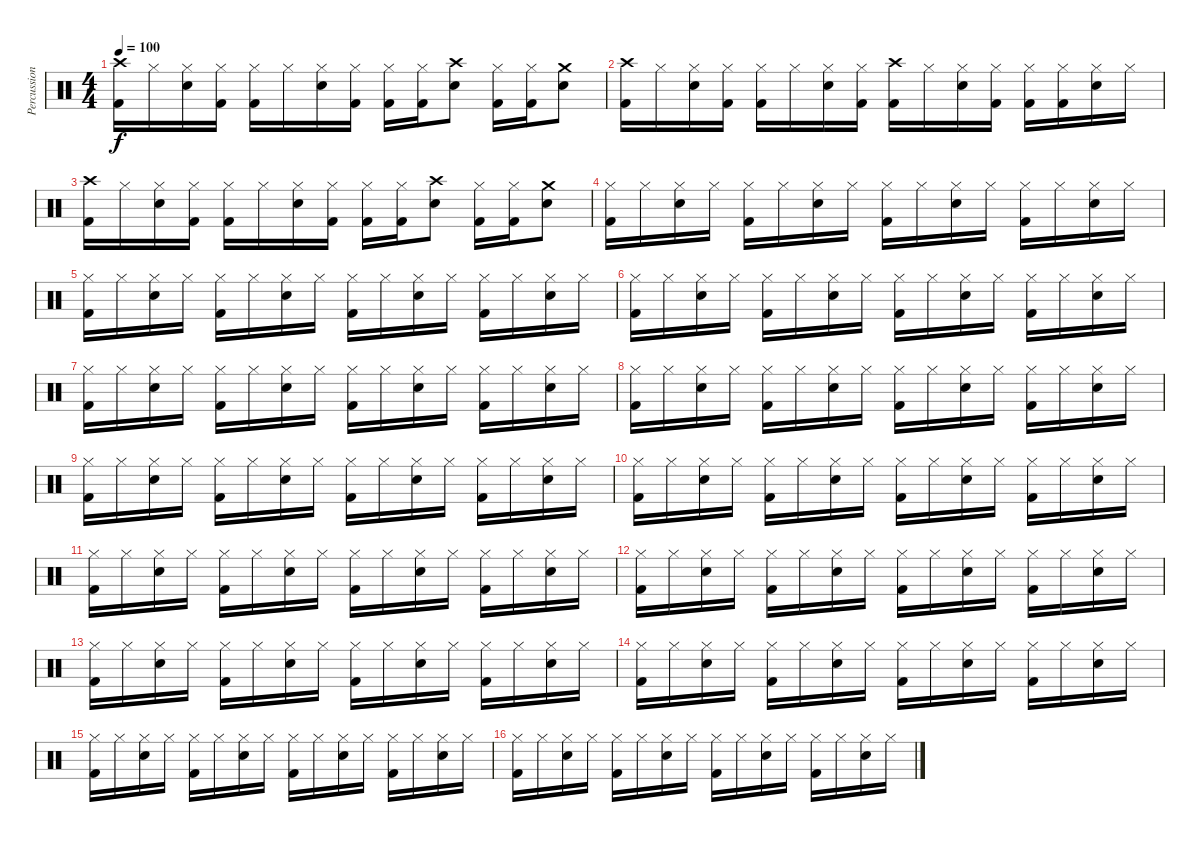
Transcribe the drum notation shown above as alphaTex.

\track ("Percussion" "Percussion") {instrument percussion}
\staff {score}
\articulation defaults
\ts (4 4)
\tempo 100
\clef neutral
\ks c
("Crash high (hit)" "Kick (hit) 2").16{dy f} "Hi-Hat (closed)".16 ("Hi-Hat (closed)" "Snare (hit) 2").16 ("Hi-Hat (closed)" "Kick (hit) 2").16 ("Hi-Hat (closed)" "Kick (hit) 2").16 "Hi-Hat (closed)".16 ("Hi-Hat (closed)" "Snare (hit) 2").16 ("Hi-Hat (closed)" "Kick (hit) 2").16 ("Hi-Hat (closed)" "Kick (hit) 2").16 ("Hi-Hat (closed)" "Kick (hit) 2").16 ("Crash high (hit)" "Snare (hit) 2").8 ("Hi-Hat (closed)" "Kick (hit) 2").16 ("Hi-Hat (closed)" "Kick (hit) 2").16 ("Crash medium (hit)" "Snare (hit) 2").8 |
("Crash high (hit)" "Kick (hit) 2").16 "Hi-Hat (closed)".16 ("Hi-Hat (closed)" "Snare (hit) 2").16 ("Hi-Hat (closed)" "Kick (hit) 2").16 ("Hi-Hat (closed)" "Kick (hit) 2").16 "Hi-Hat (closed)".16 ("Hi-Hat (closed)" "Snare (hit) 2").16 ("Hi-Hat (closed)" "Kick (hit) 2").16 ("Crash high (hit)" "Kick (hit) 2").16 "Hi-Hat (closed)".16 ("Hi-Hat (closed)" "Snare (hit) 2").16 ("Hi-Hat (closed)" "Kick (hit) 2").16 ("Hi-Hat (closed)" "Kick (hit) 2").16 ("Hi-Hat (closed)" "Kick (hit) 2").16 ("Hi-Hat (closed)" "Snare (hit) 2").16 "Hi-Hat (closed)".16 |
("Crash high (hit)" "Kick (hit) 2").16 "Hi-Hat (closed)".16 ("Hi-Hat (closed)" "Snare (hit) 2").16 ("Hi-Hat (closed)" "Kick (hit) 2").16 ("Hi-Hat (closed)" "Kick (hit) 2").16 "Hi-Hat (closed)".16 ("Hi-Hat (closed)" "Snare (hit) 2").16 ("Hi-Hat (closed)" "Kick (hit) 2").16 ("Hi-Hat (closed)" "Kick (hit) 2").16 ("Hi-Hat (closed)" "Kick (hit) 2").16 ("Crash high (hit)" "Snare (hit) 2").8 ("Hi-Hat (closed)" "Kick (hit) 2").16 ("Hi-Hat (closed)" "Kick (hit) 2").16 ("Crash medium (hit)" "Snare (hit) 2").8 |
("Hi-Hat (closed)" "Kick (hit) 2").16 "Hi-Hat (closed)".16 ("Hi-Hat (closed)" "Snare (hit) 2").16 "Hi-Hat (closed)".16 ("Hi-Hat (closed)" "Kick (hit) 2").16 "Hi-Hat (closed)".16 ("Hi-Hat (closed)" "Snare (hit) 2").16 "Hi-Hat (closed)".16 ("Hi-Hat (closed)" "Kick (hit) 2").16 "Hi-Hat (closed)".16 ("Hi-Hat (closed)" "Snare (hit) 2").16 "Hi-Hat (closed)".16 ("Hi-Hat (closed)" "Kick (hit) 2").16 "Hi-Hat (closed)".16 ("Hi-Hat (closed)" "Snare (hit) 2").16 "Hi-Hat (closed)".16 |
("Hi-Hat (closed)" "Kick (hit) 2").16 "Hi-Hat (closed)".16 ("Hi-Hat (closed)" "Snare (hit) 2").16 "Hi-Hat (closed)".16 ("Hi-Hat (closed)" "Kick (hit) 2").16 "Hi-Hat (closed)".16 ("Hi-Hat (closed)" "Snare (hit) 2").16 "Hi-Hat (closed)".16 ("Hi-Hat (closed)" "Kick (hit) 2").16 "Hi-Hat (closed)".16 ("Hi-Hat (closed)" "Snare (hit) 2").16 "Hi-Hat (closed)".16 ("Hi-Hat (closed)" "Kick (hit) 2").16 "Hi-Hat (closed)".16 ("Hi-Hat (closed)" "Snare (hit) 2").16 "Hi-Hat (closed)".16 |
("Hi-Hat (closed)" "Kick (hit) 2").16 "Hi-Hat (closed)".16 ("Hi-Hat (closed)" "Snare (hit) 2").16 "Hi-Hat (closed)".16 ("Hi-Hat (closed)" "Kick (hit) 2").16 "Hi-Hat (closed)".16 ("Hi-Hat (closed)" "Snare (hit) 2").16 "Hi-Hat (closed)".16 ("Hi-Hat (closed)" "Kick (hit) 2").16 "Hi-Hat (closed)".16 ("Hi-Hat (closed)" "Snare (hit) 2").16 "Hi-Hat (closed)".16 ("Hi-Hat (closed)" "Kick (hit) 2").16 "Hi-Hat (closed)".16 ("Hi-Hat (closed)" "Snare (hit) 2").16 "Hi-Hat (closed)".16 |
("Hi-Hat (closed)" "Kick (hit) 2").16 "Hi-Hat (closed)".16 ("Hi-Hat (closed)" "Snare (hit) 2").16 "Hi-Hat (closed)".16 ("Hi-Hat (closed)" "Kick (hit) 2").16 "Hi-Hat (closed)".16 ("Hi-Hat (closed)" "Snare (hit) 2").16 "Hi-Hat (closed)".16 ("Hi-Hat (closed)" "Kick (hit) 2").16 "Hi-Hat (closed)".16 ("Hi-Hat (closed)" "Snare (hit) 2").16 "Hi-Hat (closed)".16 ("Hi-Hat (closed)" "Kick (hit) 2").16 "Hi-Hat (closed)".16 ("Hi-Hat (closed)" "Snare (hit) 2").16 "Hi-Hat (closed)".16 |
("Hi-Hat (closed)" "Kick (hit) 2").16 "Hi-Hat (closed)".16 ("Hi-Hat (closed)" "Snare (hit) 2").16 "Hi-Hat (closed)".16 ("Hi-Hat (closed)" "Kick (hit) 2").16 "Hi-Hat (closed)".16 ("Hi-Hat (closed)" "Snare (hit) 2").16 "Hi-Hat (closed)".16 ("Hi-Hat (closed)" "Kick (hit) 2").16 "Hi-Hat (closed)".16 ("Hi-Hat (closed)" "Snare (hit) 2").16 "Hi-Hat (closed)".16 ("Hi-Hat (closed)" "Kick (hit) 2").16 "Hi-Hat (closed)".16 ("Hi-Hat (closed)" "Snare (hit) 2").16 "Hi-Hat (closed)".16 |
("Hi-Hat (closed)" "Kick (hit) 2").16 "Hi-Hat (closed)".16 ("Hi-Hat (closed)" "Snare (hit) 2").16 "Hi-Hat (closed)".16 ("Hi-Hat (closed)" "Kick (hit) 2").16 "Hi-Hat (closed)".16 ("Hi-Hat (closed)" "Snare (hit) 2").16 "Hi-Hat (closed)".16 ("Hi-Hat (closed)" "Kick (hit) 2").16 "Hi-Hat (closed)".16 ("Hi-Hat (closed)" "Snare (hit) 2").16 "Hi-Hat (closed)".16 ("Hi-Hat (closed)" "Kick (hit) 2").16 "Hi-Hat (closed)".16 ("Hi-Hat (closed)" "Snare (hit) 2").16 "Hi-Hat (closed)".16 |
("Hi-Hat (closed)" "Kick (hit) 2").16 "Hi-Hat (closed)".16 ("Hi-Hat (closed)" "Snare (hit) 2").16 "Hi-Hat (closed)".16 ("Hi-Hat (closed)" "Kick (hit) 2").16 "Hi-Hat (closed)".16 ("Hi-Hat (closed)" "Snare (hit) 2").16 "Hi-Hat (closed)".16 ("Hi-Hat (closed)" "Kick (hit) 2").16 "Hi-Hat (closed)".16 ("Hi-Hat (closed)" "Snare (hit) 2").16 "Hi-Hat (closed)".16 ("Hi-Hat (closed)" "Kick (hit) 2").16 "Hi-Hat (closed)".16 ("Hi-Hat (closed)" "Snare (hit) 2").16 "Hi-Hat (closed)".16 |
("Hi-Hat (closed)" "Kick (hit) 2").16 "Hi-Hat (closed)".16 ("Hi-Hat (closed)" "Snare (hit) 2").16 "Hi-Hat (closed)".16 ("Hi-Hat (closed)" "Kick (hit) 2").16 "Hi-Hat (closed)".16 ("Hi-Hat (closed)" "Snare (hit) 2").16 "Hi-Hat (closed)".16 ("Hi-Hat (closed)" "Kick (hit) 2").16 "Hi-Hat (closed)".16 ("Hi-Hat (closed)" "Snare (hit) 2").16 "Hi-Hat (closed)".16 ("Hi-Hat (closed)" "Kick (hit) 2").16 "Hi-Hat (closed)".16 ("Hi-Hat (closed)" "Snare (hit) 2").16 "Hi-Hat (closed)".16 |
("Hi-Hat (closed)" "Kick (hit) 2").16 "Hi-Hat (closed)".16 ("Hi-Hat (closed)" "Snare (hit) 2").16 "Hi-Hat (closed)".16 ("Hi-Hat (closed)" "Kick (hit) 2").16 "Hi-Hat (closed)".16 ("Hi-Hat (closed)" "Snare (hit) 2").16 "Hi-Hat (closed)".16 ("Hi-Hat (closed)" "Kick (hit) 2").16 "Hi-Hat (closed)".16 ("Hi-Hat (closed)" "Snare (hit) 2").16 "Hi-Hat (closed)".16 ("Hi-Hat (closed)" "Kick (hit) 2").16 "Hi-Hat (closed)".16 ("Hi-Hat (closed)" "Snare (hit) 2").16 "Hi-Hat (closed)".16 |
("Hi-Hat (closed)" "Kick (hit) 2").16 "Hi-Hat (closed)".16 ("Hi-Hat (closed)" "Snare (hit) 2").16 "Hi-Hat (closed)".16 ("Hi-Hat (closed)" "Kick (hit) 2").16 "Hi-Hat (closed)".16 ("Hi-Hat (closed)" "Snare (hit) 2").16 "Hi-Hat (closed)".16 ("Hi-Hat (closed)" "Kick (hit) 2").16 "Hi-Hat (closed)".16 ("Hi-Hat (closed)" "Snare (hit) 2").16 "Hi-Hat (closed)".16 ("Hi-Hat (closed)" "Kick (hit) 2").16 "Hi-Hat (closed)".16 ("Hi-Hat (closed)" "Snare (hit) 2").16 "Hi-Hat (closed)".16 |
("Hi-Hat (closed)" "Kick (hit) 2").16 "Hi-Hat (closed)".16 ("Hi-Hat (closed)" "Snare (hit) 2").16 "Hi-Hat (closed)".16 ("Hi-Hat (closed)" "Kick (hit) 2").16 "Hi-Hat (closed)".16 ("Hi-Hat (closed)" "Snare (hit) 2").16 "Hi-Hat (closed)".16 ("Hi-Hat (closed)" "Kick (hit) 2").16 "Hi-Hat (closed)".16 ("Hi-Hat (closed)" "Snare (hit) 2").16 "Hi-Hat (closed)".16 ("Hi-Hat (closed)" "Kick (hit) 2").16 "Hi-Hat (closed)".16 ("Hi-Hat (closed)" "Snare (hit) 2").16 "Hi-Hat (closed)".16 |
("Hi-Hat (closed)" "Kick (hit) 2").16 "Hi-Hat (closed)".16 ("Hi-Hat (closed)" "Snare (hit) 2").16 "Hi-Hat (closed)".16 ("Hi-Hat (closed)" "Kick (hit) 2").16 "Hi-Hat (closed)".16 ("Hi-Hat (closed)" "Snare (hit) 2").16 "Hi-Hat (closed)".16 ("Hi-Hat (closed)" "Kick (hit) 2").16 "Hi-Hat (closed)".16 ("Hi-Hat (closed)" "Snare (hit) 2").16 "Hi-Hat (closed)".16 ("Hi-Hat (closed)" "Kick (hit) 2").16 "Hi-Hat (closed)".16 ("Hi-Hat (closed)" "Snare (hit) 2").16 "Hi-Hat (closed)".16 |
("Hi-Hat (closed)" "Kick (hit) 2").16 "Hi-Hat (closed)".16 ("Hi-Hat (closed)" "Snare (hit) 2").16 "Hi-Hat (closed)".16 ("Hi-Hat (closed)" "Kick (hit) 2").16 "Hi-Hat (closed)".16 ("Hi-Hat (closed)" "Snare (hit) 2").16 "Hi-Hat (closed)".16 ("Hi-Hat (closed)" "Kick (hit) 2").16 "Hi-Hat (closed)".16 ("Hi-Hat (closed)" "Snare (hit) 2").16 "Hi-Hat (closed)".16 ("Hi-Hat (closed)" "Kick (hit) 2").16 "Hi-Hat (closed)".16 ("Hi-Hat (closed)" "Snare (hit) 2").16 "Hi-Hat (closed)".16
